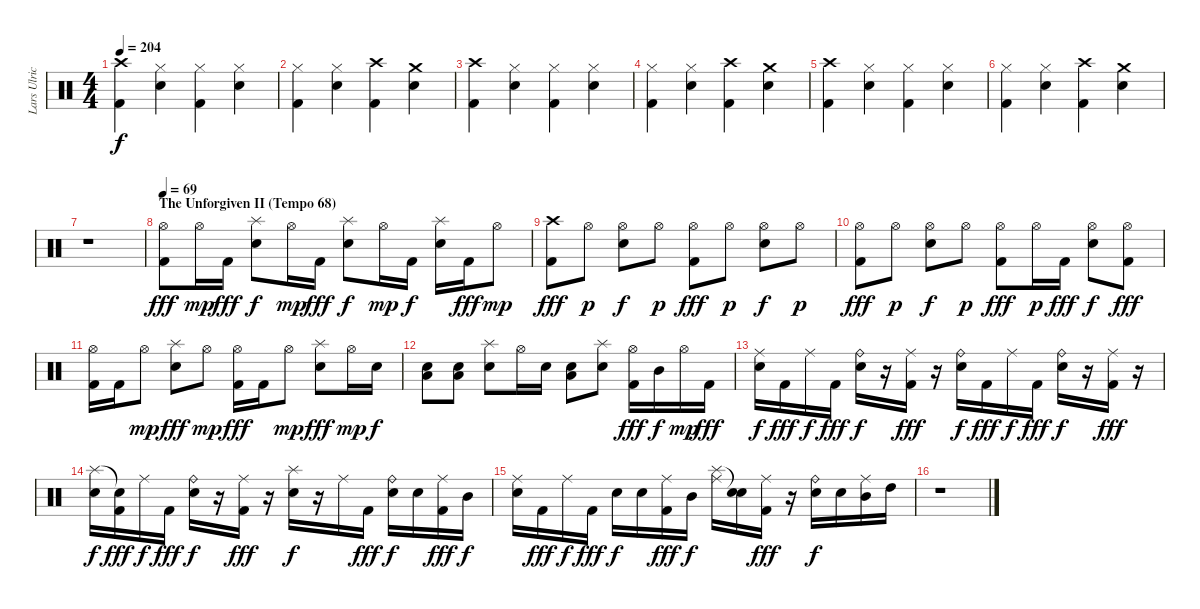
\track ("Lars Ulrich (Drums)" "Lars Ulric") {instrument percussion}
\staff {score}
\articulation defaults
\ts (4 4)
\tempo 204
\clef neutral
\ks c
("Crash high (hit)" "Kick (hit) 2").4{dy f} ("Hi-Hat (closed)" "Electric Snare (hit)").4 ("Hi-Hat (closed)" "Kick (hit) 2").4 ("Hi-Hat (closed)" "Electric Snare (hit)").4 |
("Hi-Hat (closed)" "Kick (hit) 2").4 ("Hi-Hat (closed)" "Electric Snare (hit)").4 ("Crash high (hit)" "Kick (hit) 2").4 ("Crash medium (hit)" "Electric Snare (hit)").4 |
("Crash high (hit)" "Kick (hit) 2").4 ("Hi-Hat (closed)" "Electric Snare (hit)").4 ("Hi-Hat (closed)" "Kick (hit) 2").4 ("Hi-Hat (closed)" "Electric Snare (hit)").4 |
("Hi-Hat (closed)" "Kick (hit) 2").4 ("Hi-Hat (closed)" "Electric Snare (hit)").4 ("Crash high (hit)" "Kick (hit) 2").4 ("Crash medium (hit)" "Electric Snare (hit)").4 |
("Crash high (hit)" "Kick (hit) 2").4 ("Hi-Hat (closed)" "Electric Snare (hit)").4 ("Hi-Hat (closed)" "Kick (hit) 2").4 ("Hi-Hat (closed)" "Electric Snare (hit)").4 |
("Hi-Hat (closed)" "Kick (hit) 2").4 ("Hi-Hat (closed)" "Electric Snare (hit)").4 ("Crash high (hit)" "Kick (hit) 2").4 ("Crash medium (hit)" "Electric Snare (hit)").4 |
r.1 |
\section ("" "The Unforgiven II (Tempo 68)")
\tempo 69
("Hi-Hat (open)" "Kick (hit) 2").8{dy fff} "Hi-Hat (open)".16{dy mp} "Kick (hit) 2".16{dy fff} ("Snare (hit) 2" "Splash (hit)").8{dy f} "Hi-Hat (open)".16{dy mp} "Kick (hit) 2".16{dy fff} ("Snare (hit) 2" "Splash (hit)").8{dy f} "Hi-Hat (open)".16{dy mp} "Kick (hit) 2".16{dy f} ("Snare (hit) 2" "Splash (hit)").16 "Kick (hit) 2".16{dy fff} "Hi-Hat (open)".8{dy mp} |
("Kick (hit) 2" "Crash high (hit)").8{dy fff} "Hi-Hat (open)".8{dy p} ("Hi-Hat (open)" "Snare (hit) 2").8{dy f} "Hi-Hat (open)".8{dy p} ("Hi-Hat (open)" "Kick (hit) 2").8{dy fff} "Hi-Hat (open)".8{dy p} ("Hi-Hat (open)" "Snare (hit) 2").8{dy f} "Hi-Hat (open)".8{dy p} |
("Hi-Hat (open)" "Kick (hit) 2").8{dy fff} "Hi-Hat (open)".8{dy p} ("Hi-Hat (open)" "Snare (hit) 2").8{dy f} "Hi-Hat (open)".8{dy p} ("Hi-Hat (open)" "Kick (hit) 2").8{dy fff} "Hi-Hat (open)".16{dy p} "Kick (hit) 2".16{dy fff} ("Hi-Hat (open)" "Snare (hit) 2").8{dy f} ("Hi-Hat (open)" "Kick (hit) 2").8{dy fff} |
("Hi-Hat (open)" "Kick (hit) 2").16 "Kick (hit) 2".16 "Hi-Hat (open)".8{dy mp} ("Snare (hit) 2" "Splash (hit)").8{dy fff} "Hi-Hat (open)".8{dy mp} ("Hi-Hat (open)" "Kick (hit) 2").16{dy fff} "Kick (hit) 2".16 "Hi-Hat (open)".8{dy mp} ("Snare (hit) 2" "Splash (hit)").8{dy fff} "Hi-Hat (open)".16{dy mp} "Snare (hit) 2".16{dy f} |
("Snare (hit) 2" "Low Tom (hit)").8 ("Snare (hit) 2" "Low Tom (hit)").8 ("Snare (hit) 2" "Splash (hit)").8 "Hi-Hat (open)".16 "Snare (hit) 2".16 ("Snare (hit) 2" "Low Tom (hit)").8 ("Snare (hit) 2" "Splash (hit)").8 ("Hi-Hat (open)" "Kick (hit) 2").16{dy fff} "Mid Tom (hit)".16{dy f} "Hi-Hat (open)".16{dy mp} "Kick (hit) 2".16{dy fff} |
("Ride (middle)" "Snare (hit) 2").16{dy f} "Kick (hit) 2".16{dy fff} "Ride (middle)".16{dy f} "Kick (hit) 2".16{dy fff} ("Ride (bell)" "Snare (hit) 2").16{dy f} r.16 ("Ride (middle)" "Kick (hit) 2").16{dy fff} r.16 ("Ride (bell)" "Snare (hit) 2").16{dy f} "Kick (hit) 2".16{dy fff} "Ride (middle)".16{dy f} "Kick (hit) 2".16{dy fff} ("Ride (bell)" "Snare (hit) 2").16{dy f} r.16 ("Ride (middle)" "Kick (hit) 2").16{dy fff} r.16 |
("Snare (hit) 2" "Splash (hit)").16{dy f} ("Kick (hit) 2" "Snare (hit)"{t}).16{dy fff} "Ride (middle)".16{dy f} "Kick (hit) 2".16{dy fff} ("Ride (bell)" "Snare (hit) 2").16{dy f} r.16 ("Ride (middle)" "Kick (hit) 2").16{dy fff} r.16 ("Snare (hit) 2" "Splash (hit)").16{dy f} r.16 "Ride (middle)".16 "Kick (hit) 2".16{dy fff} ("Ride (bell)" "Snare (hit) 2").16{dy f} "Snare (hit) 2".16 ("Ride (middle)" "Kick (hit) 2").16{dy fff} "Mid Tom (hit)".16{dy f} |
("Ride (middle)" "Snare (hit) 2").16 "Kick (hit) 2".16{dy fff} "Ride (middle)".16{dy f} "Kick (hit) 2".16{dy fff} "Snare (hit) 2".16{dy f} "Snare (hit) 2".16 ("Ride (middle)" "Kick (hit) 2").16{dy fff} "Mid Tom (hit)".16{dy f} ("Ride (middle)" "Splash (hit)").16 ("Snare (hit) 2" "Snare (hit)"{t}).16 ("Ride (middle)" "Kick (hit) 2").16{dy fff} r.16 ("Ride (bell)" "Snare (hit) 2").16{dy f} "Snare (hit) 2".16 ("Ride (middle)" "Mid Tom (hit)").16 "High Tom (hit)".16 |
r.1
